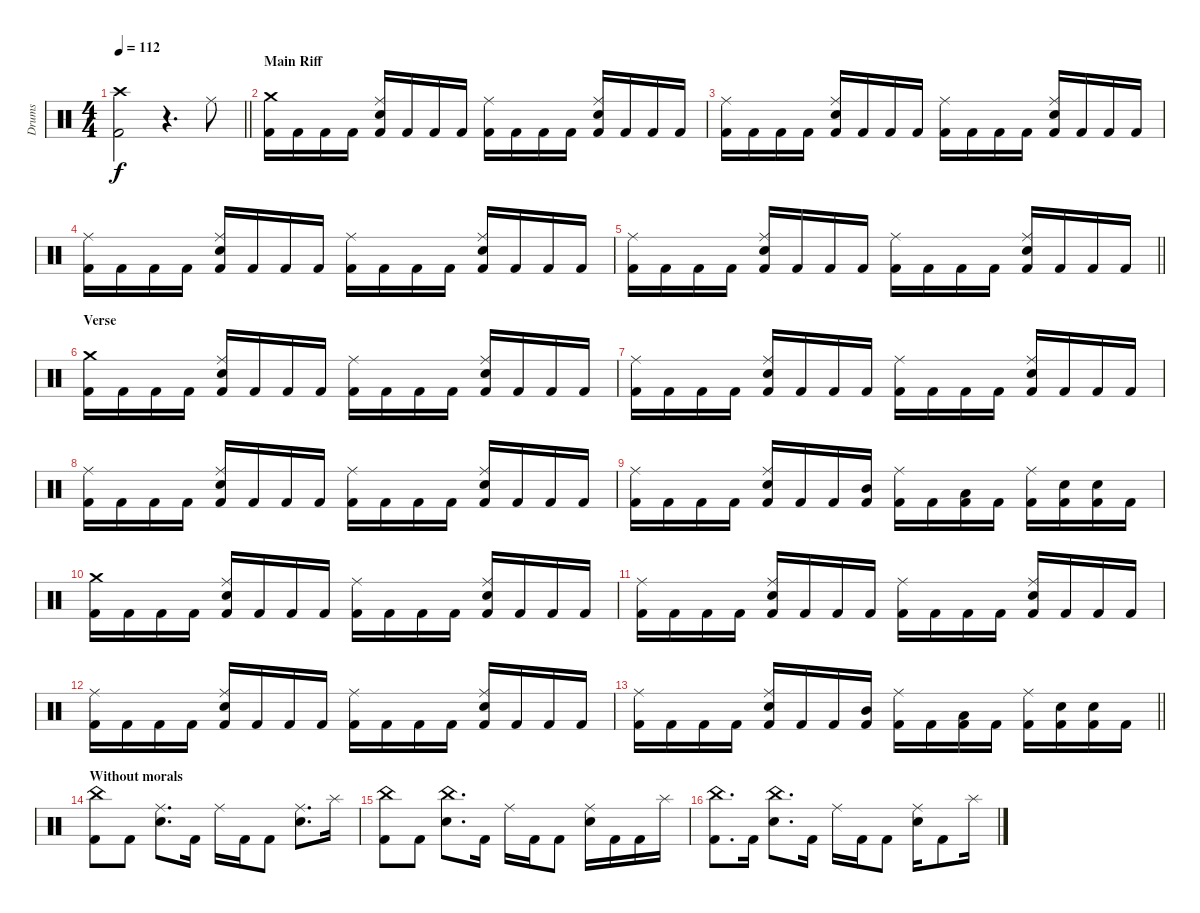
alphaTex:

\track ("Drums" "Drums") {instrument percussion}
\staff {score}
\articulation defaults
\ts (4 4)
\tempo 112
\clef neutral
\barLineRight lightlight
\ks c
("Crash high (hit)" "Kick (hit) 2").2{dy f} r.4{d} "Ride (middle)".8 |
\section ("" "Main Riff")
("Crash medium (hit)" "Kick (hit) 2").16 "Kick (hit) 2".16 "Kick (hit) 2".16 "Kick (hit) 2".16 ("Ride (middle)" "Electric Snare (hit)" "Kick (hit) 2").16 "Kick (hit) 2".16 "Kick (hit) 2".16 "Kick (hit) 2".16 ("Ride (middle)" "Kick (hit) 2").16 "Kick (hit) 2".16 "Kick (hit) 2".16 "Kick (hit) 2".16 ("Ride (middle)" "Electric Snare (hit)" "Kick (hit) 2").16 "Kick (hit) 2".16 "Kick (hit) 2".16 "Kick (hit) 2".16 |
("Ride (middle)" "Kick (hit) 2").16 "Kick (hit) 2".16 "Kick (hit) 2".16 "Kick (hit) 2".16 ("Ride (middle)" "Electric Snare (hit)" "Kick (hit) 2").16 "Kick (hit) 2".16 "Kick (hit) 2".16 "Kick (hit) 2".16 ("Ride (middle)" "Kick (hit) 2").16 "Kick (hit) 2".16 "Kick (hit) 2".16 "Kick (hit) 2".16 ("Ride (middle)" "Electric Snare (hit)" "Kick (hit) 2").16 "Kick (hit) 2".16 "Kick (hit) 2".16 "Kick (hit) 2".16 |
("Ride (middle)" "Kick (hit) 2").16 "Kick (hit) 2".16 "Kick (hit) 2".16 "Kick (hit) 2".16 ("Ride (middle)" "Electric Snare (hit)" "Kick (hit) 2").16 "Kick (hit) 2".16 "Kick (hit) 2".16 "Kick (hit) 2".16 ("Ride (middle)" "Kick (hit) 2").16 "Kick (hit) 2".16 "Kick (hit) 2".16 "Kick (hit) 2".16 ("Ride (middle)" "Electric Snare (hit)" "Kick (hit) 2").16 "Kick (hit) 2".16 "Kick (hit) 2".16 "Kick (hit) 2".16 |
\barLineRight lightlight
("Ride (middle)" "Kick (hit) 2").16 "Kick (hit) 2".16 "Kick (hit) 2".16 "Kick (hit) 2".16 ("Ride (middle)" "Electric Snare (hit)" "Kick (hit) 2").16 "Kick (hit) 2".16 "Kick (hit) 2".16 "Kick (hit) 2".16 ("Ride (middle)" "Kick (hit) 2").16 "Kick (hit) 2".16 "Kick (hit) 2".16 "Kick (hit) 2".16 ("Ride (middle)" "Electric Snare (hit)" "Kick (hit) 2").16 "Kick (hit) 2".16 "Kick (hit) 2".16 "Kick (hit) 2".16 |
\section ("" "Verse")
("Crash medium (hit)" "Kick (hit) 2").16 "Kick (hit) 2".16 "Kick (hit) 2".16 "Kick (hit) 2".16 ("Ride (middle)" "Electric Snare (hit)" "Kick (hit) 2").16 "Kick (hit) 2".16 "Kick (hit) 2".16 "Kick (hit) 2".16 ("Ride (middle)" "Kick (hit) 2").16 "Kick (hit) 2".16 "Kick (hit) 2".16 "Kick (hit) 2".16 ("Ride (middle)" "Electric Snare (hit)" "Kick (hit) 2").16 "Kick (hit) 2".16 "Kick (hit) 2".16 "Kick (hit) 2".16 |
("Ride (middle)" "Kick (hit) 2").16 "Kick (hit) 2".16 "Kick (hit) 2".16 "Kick (hit) 2".16 ("Ride (middle)" "Electric Snare (hit)" "Kick (hit) 2").16 "Kick (hit) 2".16 "Kick (hit) 2".16 "Kick (hit) 2".16 ("Ride (middle)" "Kick (hit) 2").16 "Kick (hit) 2".16 "Kick (hit) 2".16 "Kick (hit) 2".16 ("Ride (middle)" "Electric Snare (hit)" "Kick (hit) 2").16 "Kick (hit) 2".16 "Kick (hit) 2".16 "Kick (hit) 2".16 |
("Ride (middle)" "Kick (hit) 2").16 "Kick (hit) 2".16 "Kick (hit) 2".16 "Kick (hit) 2".16 ("Ride (middle)" "Electric Snare (hit)" "Kick (hit) 2").16 "Kick (hit) 2".16 "Kick (hit) 2".16 "Kick (hit) 2".16 ("Ride (middle)" "Kick (hit) 2").16 "Kick (hit) 2".16 "Kick (hit) 2".16 "Kick (hit) 2".16 ("Ride (middle)" "Electric Snare (hit)" "Kick (hit) 2").16 "Kick (hit) 2".16 "Kick (hit) 2".16 "Kick (hit) 2".16 |
("Ride (middle)" "Kick (hit) 2").16 "Kick (hit) 2".16 "Kick (hit) 2".16 "Kick (hit) 2".16 ("Ride (middle)" "Electric Snare (hit)" "Kick (hit) 2").16 "Kick (hit) 2".16 "Kick (hit) 2".16 ("Mid Tom (hit)" "Kick (hit) 2").16 ("Ride (middle)" "Kick (hit) 2").16 "Kick (hit) 2".16 ("Low Tom (hit)" "Kick (hit) 2").16 "Kick (hit) 2".16 ("Ride (middle)" "Kick (hit) 2").16 ("Electric Snare (hit)" "Kick (hit) 2").16 ("Electric Snare (hit)" "Kick (hit) 2").16 "Kick (hit) 2".16 |
("Crash medium (hit)" "Kick (hit) 2").16 "Kick (hit) 2".16 "Kick (hit) 2".16 "Kick (hit) 2".16 ("Ride (middle)" "Electric Snare (hit)" "Kick (hit) 2").16 "Kick (hit) 2".16 "Kick (hit) 2".16 "Kick (hit) 2".16 ("Ride (middle)" "Kick (hit) 2").16 "Kick (hit) 2".16 "Kick (hit) 2".16 "Kick (hit) 2".16 ("Ride (middle)" "Electric Snare (hit)" "Kick (hit) 2").16 "Kick (hit) 2".16 "Kick (hit) 2".16 "Kick (hit) 2".16 |
("Ride (middle)" "Kick (hit) 2").16 "Kick (hit) 2".16 "Kick (hit) 2".16 "Kick (hit) 2".16 ("Ride (middle)" "Electric Snare (hit)" "Kick (hit) 2").16 "Kick (hit) 2".16 "Kick (hit) 2".16 "Kick (hit) 2".16 ("Ride (middle)" "Kick (hit) 2").16 "Kick (hit) 2".16 "Kick (hit) 2".16 "Kick (hit) 2".16 ("Ride (middle)" "Electric Snare (hit)" "Kick (hit) 2").16 "Kick (hit) 2".16 "Kick (hit) 2".16 "Kick (hit) 2".16 |
("Ride (middle)" "Kick (hit) 2").16 "Kick (hit) 2".16 "Kick (hit) 2".16 "Kick (hit) 2".16 ("Ride (middle)" "Electric Snare (hit)" "Kick (hit) 2").16 "Kick (hit) 2".16 "Kick (hit) 2".16 "Kick (hit) 2".16 ("Ride (middle)" "Kick (hit) 2").16 "Kick (hit) 2".16 "Kick (hit) 2".16 "Kick (hit) 2".16 ("Ride (middle)" "Electric Snare (hit)" "Kick (hit) 2").16 "Kick (hit) 2".16 "Kick (hit) 2".16 "Kick (hit) 2".16 |
\barLineRight lightlight
("Ride (middle)" "Kick (hit) 2").16 "Kick (hit) 2".16 "Kick (hit) 2".16 "Kick (hit) 2".16 ("Ride (middle)" "Electric Snare (hit)" "Kick (hit) 2").16 "Kick (hit) 2".16 "Kick (hit) 2".16 ("Mid Tom (hit)" "Kick (hit) 2").16 ("Ride (middle)" "Kick (hit) 2").16 "Kick (hit) 2".16 ("Low Tom (hit)" "Kick (hit) 2").16 "Kick (hit) 2".16 ("Ride (middle)" "Kick (hit) 2").16 ("Electric Snare (hit)" "Kick (hit) 2").16 ("Electric Snare (hit)" "Kick (hit) 2").16 "Kick (hit) 2".16 |
\section ("" "Without morals")
("China (hit)" "Kick (hit) 2").8 "Kick (hit) 2".8 ("Ride (middle)" "Electric Snare (hit)").8{d} "Kick (hit) 2".16 "Ride (middle)".16 "Kick (hit) 2".16 "Kick (hit) 2".8 ("Ride (middle)" "Electric Snare (hit)").8{d} "Splash (hit)".16 |
("China (hit)" "Kick (hit) 2").8 "Kick (hit) 2".8 ("China (hit)" "Electric Snare (hit)").8{d} "Kick (hit) 2".16 "Ride (middle)".16 "Kick (hit) 2".16 "Kick (hit) 2".8 ("Ride (middle)" "Electric Snare (hit)").16 "Kick (hit) 2".16 "Kick (hit) 2".16 "Splash (hit)".16 |
("China (hit)" "Kick (hit) 2").8{d} "Kick (hit) 2".16 ("China (hit)" "Electric Snare (hit)").8{d} "Kick (hit) 2".16 "Ride (middle)".16 "Kick (hit) 2".16 "Kick (hit) 2".8 ("Ride (middle)" "Electric Snare (hit)").16 "Kick (hit) 2".8 "Splash (hit)".16
